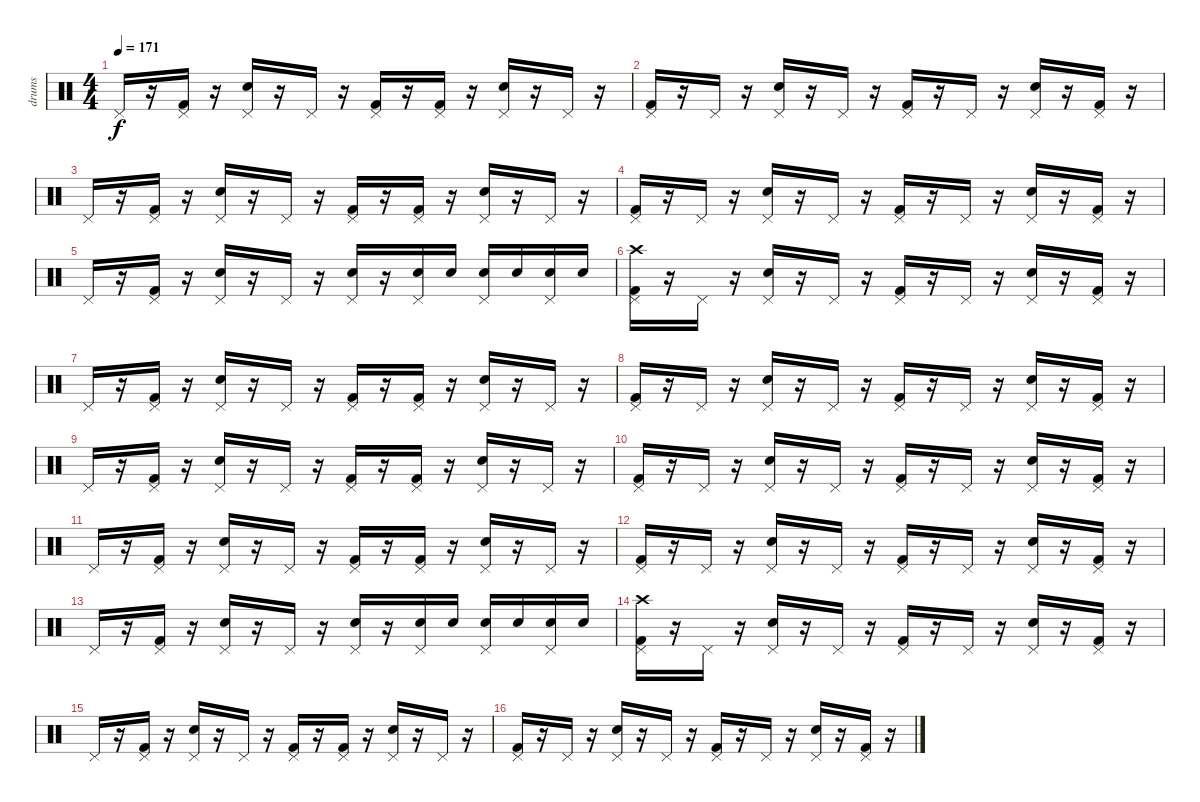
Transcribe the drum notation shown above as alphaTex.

\track ("drums" "drums") {instrument percussion}
\staff {score}
\articulation defaults
\ts (4 4)
\tempo 171
\clef neutral
\ks c "Pedal Hi-Hat (hit)".16{dy f}
r.16 ("Pedal Hi-Hat (hit)" "Kick (hit) 2").16 r.16 ("Pedal Hi-Hat (hit)" "Electric Snare (hit)").16 r.16 "Pedal Hi-Hat (hit)".16 r.16 ("Pedal Hi-Hat (hit)" "Kick (hit) 2").16 r.16 ("Pedal Hi-Hat (hit)" "Kick (hit) 2").16 r.16 ("Pedal Hi-Hat (hit)" "Electric Snare (hit)").16 r.16 "Pedal Hi-Hat (hit)".16 r.16 |
("Pedal Hi-Hat (hit)" "Kick (hit) 2").16 r.16 "Pedal Hi-Hat (hit)".16 r.16 ("Pedal Hi-Hat (hit)" "Electric Snare (hit)").16 r.16 "Pedal Hi-Hat (hit)".16 r.16 ("Pedal Hi-Hat (hit)" "Kick (hit) 2").16 r.16 "Pedal Hi-Hat (hit)".16 r.16 ("Pedal Hi-Hat (hit)" "Electric Snare (hit)").16 r.16 ("Pedal Hi-Hat (hit)" "Kick (hit) 2").16 r.16 |
"Pedal Hi-Hat (hit)".16 r.16 ("Pedal Hi-Hat (hit)" "Kick (hit) 2").16 r.16 ("Pedal Hi-Hat (hit)" "Electric Snare (hit)").16 r.16 "Pedal Hi-Hat (hit)".16 r.16 ("Pedal Hi-Hat (hit)" "Kick (hit) 2").16 r.16 ("Pedal Hi-Hat (hit)" "Kick (hit) 2").16 r.16 ("Pedal Hi-Hat (hit)" "Electric Snare (hit)").16 r.16 "Pedal Hi-Hat (hit)".16 r.16 |
("Pedal Hi-Hat (hit)" "Kick (hit) 2").16 r.16 "Pedal Hi-Hat (hit)".16 r.16 ("Pedal Hi-Hat (hit)" "Electric Snare (hit)").16 r.16 "Pedal Hi-Hat (hit)".16 r.16 ("Pedal Hi-Hat (hit)" "Kick (hit) 2").16 r.16 "Pedal Hi-Hat (hit)".16 r.16 ("Pedal Hi-Hat (hit)" "Electric Snare (hit)").16 r.16 ("Pedal Hi-Hat (hit)" "Kick (hit) 2").16 r.16 |
"Pedal Hi-Hat (hit)".16 r.16 ("Pedal Hi-Hat (hit)" "Kick (hit) 2").16 r.16 ("Pedal Hi-Hat (hit)" "Electric Snare (hit)").16 r.16 "Pedal Hi-Hat (hit)".16 r.16 ("Pedal Hi-Hat (hit)" "Electric Snare (hit)").16 r.16 ("Pedal Hi-Hat (hit)" "Electric Snare (hit)").16 "Electric Snare (hit)".16 ("Pedal Hi-Hat (hit)" "Electric Snare (hit)").16 "Electric Snare (hit)".16 ("Pedal Hi-Hat (hit)" "Electric Snare (hit)").16 "Electric Snare (hit)".16 |
("Pedal Hi-Hat (hit)" "Crash high (hit)" "Kick (hit) 2").16 r.16 "Pedal Hi-Hat (hit)".16 r.16 ("Pedal Hi-Hat (hit)" "Electric Snare (hit)").16 r.16 "Pedal Hi-Hat (hit)".16 r.16 ("Pedal Hi-Hat (hit)" "Kick (hit) 2").16 r.16 "Pedal Hi-Hat (hit)".16 r.16 ("Pedal Hi-Hat (hit)" "Electric Snare (hit)").16 r.16 ("Pedal Hi-Hat (hit)" "Kick (hit) 2").16 r.16 |
"Pedal Hi-Hat (hit)".16 r.16 ("Pedal Hi-Hat (hit)" "Kick (hit) 2").16 r.16 ("Pedal Hi-Hat (hit)" "Electric Snare (hit)").16 r.16 "Pedal Hi-Hat (hit)".16 r.16 ("Pedal Hi-Hat (hit)" "Kick (hit) 2").16 r.16 ("Pedal Hi-Hat (hit)" "Kick (hit) 2").16 r.16 ("Pedal Hi-Hat (hit)" "Electric Snare (hit)").16 r.16 "Pedal Hi-Hat (hit)".16 r.16 |
("Pedal Hi-Hat (hit)" "Kick (hit) 2").16 r.16 "Pedal Hi-Hat (hit)".16 r.16 ("Pedal Hi-Hat (hit)" "Electric Snare (hit)").16 r.16 "Pedal Hi-Hat (hit)".16 r.16 ("Pedal Hi-Hat (hit)" "Kick (hit) 2").16 r.16 "Pedal Hi-Hat (hit)".16 r.16 ("Pedal Hi-Hat (hit)" "Electric Snare (hit)").16 r.16 ("Pedal Hi-Hat (hit)" "Kick (hit) 2").16 r.16 |
"Pedal Hi-Hat (hit)".16 r.16 ("Pedal Hi-Hat (hit)" "Kick (hit) 2").16 r.16 ("Pedal Hi-Hat (hit)" "Electric Snare (hit)").16 r.16 "Pedal Hi-Hat (hit)".16 r.16 ("Pedal Hi-Hat (hit)" "Kick (hit) 2").16 r.16 ("Pedal Hi-Hat (hit)" "Kick (hit) 2").16 r.16 ("Pedal Hi-Hat (hit)" "Electric Snare (hit)").16 r.16 "Pedal Hi-Hat (hit)".16 r.16 |
("Pedal Hi-Hat (hit)" "Kick (hit) 2").16 r.16 "Pedal Hi-Hat (hit)".16 r.16 ("Pedal Hi-Hat (hit)" "Electric Snare (hit)").16 r.16 "Pedal Hi-Hat (hit)".16 r.16 ("Pedal Hi-Hat (hit)" "Kick (hit) 2").16 r.16 "Pedal Hi-Hat (hit)".16 r.16 ("Pedal Hi-Hat (hit)" "Electric Snare (hit)").16 r.16 ("Pedal Hi-Hat (hit)" "Kick (hit) 2").16 r.16 |
"Pedal Hi-Hat (hit)".16 r.16 ("Pedal Hi-Hat (hit)" "Kick (hit) 2").16 r.16 ("Pedal Hi-Hat (hit)" "Electric Snare (hit)").16 r.16 "Pedal Hi-Hat (hit)".16 r.16 ("Pedal Hi-Hat (hit)" "Kick (hit) 2").16 r.16 ("Pedal Hi-Hat (hit)" "Kick (hit) 2").16 r.16 ("Pedal Hi-Hat (hit)" "Electric Snare (hit)").16 r.16 "Pedal Hi-Hat (hit)".16 r.16 |
("Pedal Hi-Hat (hit)" "Kick (hit) 2").16 r.16 "Pedal Hi-Hat (hit)".16 r.16 ("Pedal Hi-Hat (hit)" "Electric Snare (hit)").16 r.16 "Pedal Hi-Hat (hit)".16 r.16 ("Pedal Hi-Hat (hit)" "Kick (hit) 2").16 r.16 "Pedal Hi-Hat (hit)".16 r.16 ("Pedal Hi-Hat (hit)" "Electric Snare (hit)").16 r.16 ("Pedal Hi-Hat (hit)" "Kick (hit) 2").16 r.16 |
"Pedal Hi-Hat (hit)".16 r.16 ("Pedal Hi-Hat (hit)" "Kick (hit) 2").16 r.16 ("Pedal Hi-Hat (hit)" "Electric Snare (hit)").16 r.16 "Pedal Hi-Hat (hit)".16 r.16 ("Pedal Hi-Hat (hit)" "Electric Snare (hit)").16 r.16 ("Pedal Hi-Hat (hit)" "Electric Snare (hit)").16 "Electric Snare (hit)".16 ("Pedal Hi-Hat (hit)" "Electric Snare (hit)").16 "Electric Snare (hit)".16 ("Pedal Hi-Hat (hit)" "Electric Snare (hit)").16 "Electric Snare (hit)".16 |
("Pedal Hi-Hat (hit)" "Crash high (hit)" "Kick (hit) 2").16 r.16 "Pedal Hi-Hat (hit)".16 r.16 ("Pedal Hi-Hat (hit)" "Electric Snare (hit)").16 r.16 "Pedal Hi-Hat (hit)".16 r.16 ("Pedal Hi-Hat (hit)" "Kick (hit) 2").16 r.16 "Pedal Hi-Hat (hit)".16 r.16 ("Pedal Hi-Hat (hit)" "Electric Snare (hit)").16 r.16 ("Pedal Hi-Hat (hit)" "Kick (hit) 2").16 r.16 |
"Pedal Hi-Hat (hit)".16 r.16 ("Pedal Hi-Hat (hit)" "Kick (hit) 2").16 r.16 ("Pedal Hi-Hat (hit)" "Electric Snare (hit)").16 r.16 "Pedal Hi-Hat (hit)".16 r.16 ("Pedal Hi-Hat (hit)" "Kick (hit) 2").16 r.16 ("Pedal Hi-Hat (hit)" "Kick (hit) 2").16 r.16 ("Pedal Hi-Hat (hit)" "Electric Snare (hit)").16 r.16 "Pedal Hi-Hat (hit)".16 r.16 |
("Pedal Hi-Hat (hit)" "Kick (hit) 2").16 r.16 "Pedal Hi-Hat (hit)".16 r.16 ("Pedal Hi-Hat (hit)" "Electric Snare (hit)").16 r.16 "Pedal Hi-Hat (hit)".16 r.16 ("Pedal Hi-Hat (hit)" "Kick (hit) 2").16 r.16 "Pedal Hi-Hat (hit)".16 r.16 ("Pedal Hi-Hat (hit)" "Electric Snare (hit)").16 r.16 ("Pedal Hi-Hat (hit)" "Kick (hit) 2").16 r.16
